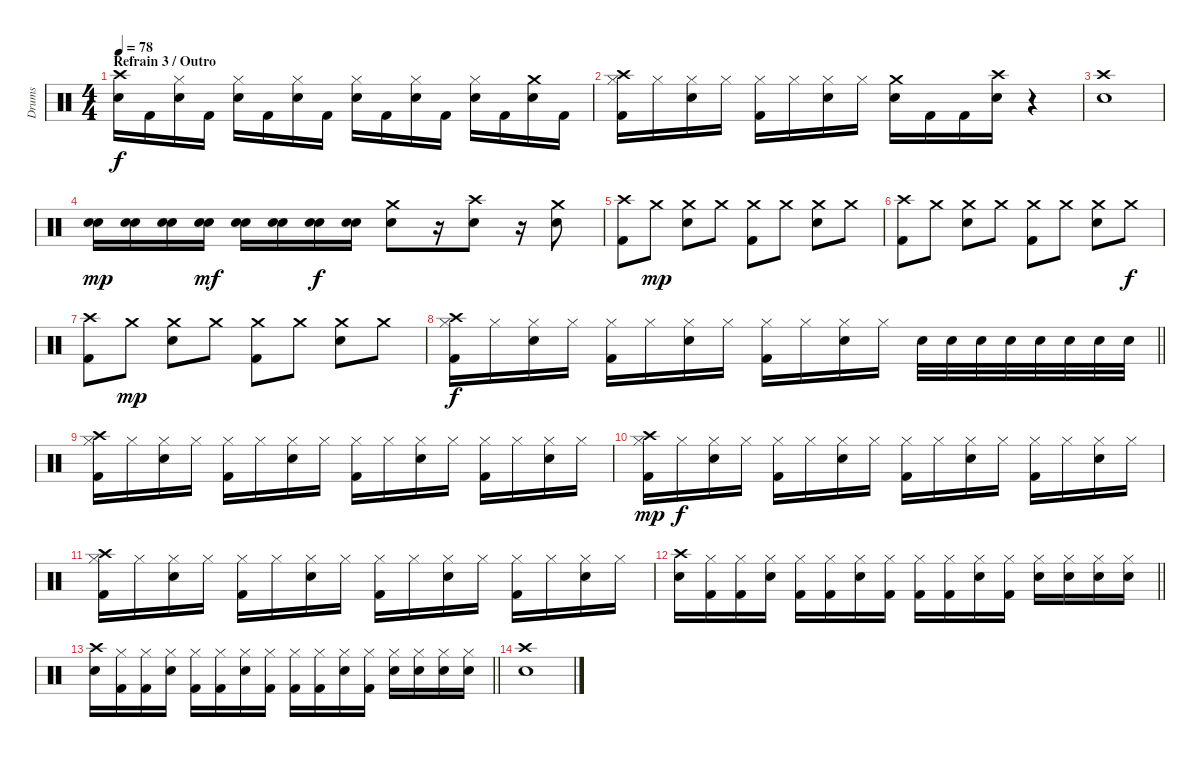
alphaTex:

\track ("Drums" "Drums") {instrument percussion}
\staff {score}
\articulation defaults
\ts (4 4)
\section ("" "Refrain 3 / Outro")
\tempo 78
\clef neutral
\ks c
("Crash high (hit)" "Snare (hit) 2").16{dy f} "Kick (hit) 2".16 ("Hi-Hat (closed)" "Snare (hit) 2").16 "Kick (hit) 2".16 ("Hi-Hat (closed)" "Snare (hit) 2").16 "Kick (hit) 2".16 ("Hi-Hat (closed)" "Snare (hit) 2").16 "Kick (hit) 2".16 ("Hi-Hat (closed)" "Snare (hit) 2").16 "Kick (hit) 2".16 ("Hi-Hat (closed)" "Snare (hit) 2").16 "Kick (hit) 2".16 ("Hi-Hat (closed)" "Snare (hit) 2").16 "Kick (hit) 2".16 ("Crash medium (hit)" "Snare (hit) 2").16 "Kick (hit) 2".16 |
("Crash high (hit)" "Hi-Hat (closed)" "Kick (hit) 2").16 "Hi-Hat (closed)".16 ("Hi-Hat (closed)" "Snare (hit) 2").16 "Hi-Hat (closed)".16 ("Hi-Hat (closed)" "Kick (hit) 2").16 "Hi-Hat (closed)".16 ("Hi-Hat (closed)" "Snare (hit) 2").16 "Hi-Hat (closed)".16 ("Crash medium (hit)" "Snare (hit) 2").16 "Kick (hit) 2".16 "Kick (hit) 2".16 ("Crash high (hit)" "Snare (hit) 2").16 r.4 |
("Crash high (hit)" "Snare (hit) 2").1 |
("Electric Snare (hit)" "Snare (hit) 2").16{dy mp} ("Electric Snare (hit)" "Snare (hit) 2").16 ("Electric Snare (hit)" "Snare (hit) 2").16 ("Electric Snare (hit)" "Snare (hit) 2").16{dy mf} ("Electric Snare (hit)" "Snare (hit) 2").16 ("Electric Snare (hit)" "Snare (hit) 2").16 ("Electric Snare (hit)" "Snare (hit) 2").16{dy f} ("Electric Snare (hit)" "Snare (hit) 2").16 ("Crash medium (hit)" "Snare (hit) 2").8 r.16 ("Crash high (hit)" "Snare (hit) 2").8 r.16 ("Crash medium (hit)" "Snare (hit) 2").8 |
("Crash high (hit)" "Kick (hit) 2").8 "Crash medium (hit)".8{dy mp} ("Crash medium (hit)" "Snare (hit) 2").8 "Crash medium (hit)".8 ("Crash medium (hit)" "Kick (hit) 2").8 "Crash medium (hit)".8 ("Crash medium (hit)" "Snare (hit) 2").8 "Crash medium (hit)".8 |
("Crash high (hit)" "Kick (hit) 2").8 "Crash medium (hit)".8 ("Crash medium (hit)" "Snare (hit) 2").8 "Crash medium (hit)".8 ("Crash medium (hit)" "Kick (hit) 2").8 "Crash medium (hit)".8 ("Crash medium (hit)" "Snare (hit) 2").8 "Crash medium (hit)".8{dy f} |
("Crash high (hit)" "Kick (hit) 2").8 "Crash medium (hit)".8{dy mp} ("Crash medium (hit)" "Snare (hit) 2").8 "Crash medium (hit)".8 ("Crash medium (hit)" "Kick (hit) 2").8 "Crash medium (hit)".8 ("Crash medium (hit)" "Snare (hit) 2").8 "Crash medium (hit)".8 |
\barLineRight lightlight
("Crash high (hit)" "Hi-Hat (closed)" "Kick (hit) 2").16{dy f} "Hi-Hat (closed)".16 ("Hi-Hat (closed)" "Snare (hit) 2").16 "Hi-Hat (closed)".16 ("Hi-Hat (closed)" "Kick (hit) 2").16 "Hi-Hat (closed)".16 ("Hi-Hat (closed)" "Snare (hit) 2").16 "Hi-Hat (closed)".16 ("Hi-Hat (closed)" "Kick (hit) 2").16 "Hi-Hat (closed)".16 ("Hi-Hat (closed)" "Snare (hit) 2").16 "Hi-Hat (closed)".16 "Snare (hit) 2".32 "Snare (hit) 2".32 "Snare (hit) 2".32 "Snare (hit) 2".32 "Snare (hit) 2".32 "Snare (hit) 2".32 "Snare (hit) 2".32 "Snare (hit) 2".32 |
("Crash high (hit)" "Hi-Hat (closed)" "Kick (hit) 2").16 "Hi-Hat (closed)".16 ("Hi-Hat (closed)" "Snare (hit) 2").16 "Hi-Hat (closed)".16 ("Hi-Hat (closed)" "Kick (hit) 2").16 "Hi-Hat (closed)".16 ("Hi-Hat (closed)" "Snare (hit) 2").16 "Hi-Hat (closed)".16 ("Hi-Hat (closed)" "Kick (hit) 2").16 "Hi-Hat (closed)".16 ("Hi-Hat (closed)" "Snare (hit) 2").16 "Hi-Hat (closed)".16 ("Hi-Hat (closed)" "Kick (hit) 2").16 "Hi-Hat (closed)".16 ("Hi-Hat (closed)" "Snare (hit) 2").16 "Hi-Hat (closed)".16 |
("Crash high (hit)" "Hi-Hat (closed)" "Kick (hit) 2").16{dy mp} "Hi-Hat (closed)".16{dy f} ("Hi-Hat (closed)" "Snare (hit) 2").16 "Hi-Hat (closed)".16 ("Hi-Hat (closed)" "Kick (hit) 2").16 "Hi-Hat (closed)".16 ("Hi-Hat (closed)" "Snare (hit) 2").16 "Hi-Hat (closed)".16 ("Hi-Hat (closed)" "Kick (hit) 2").16 "Hi-Hat (closed)".16 ("Hi-Hat (closed)" "Snare (hit) 2").16 "Hi-Hat (closed)".16 ("Hi-Hat (closed)" "Kick (hit) 2").16 "Hi-Hat (closed)".16 ("Hi-Hat (closed)" "Snare (hit) 2").16 "Hi-Hat (closed)".16 |
("Crash high (hit)" "Hi-Hat (closed)" "Kick (hit) 2").16 "Hi-Hat (closed)".16 ("Hi-Hat (closed)" "Snare (hit) 2").16 "Hi-Hat (closed)".16 ("Hi-Hat (closed)" "Kick (hit) 2").16 "Hi-Hat (closed)".16 ("Hi-Hat (closed)" "Snare (hit) 2").16 "Hi-Hat (closed)".16 ("Hi-Hat (closed)" "Kick (hit) 2").16 "Hi-Hat (closed)".16 ("Hi-Hat (closed)" "Snare (hit) 2").16 "Hi-Hat (closed)".16 ("Hi-Hat (closed)" "Kick (hit) 2").16 "Hi-Hat (closed)".16 ("Hi-Hat (closed)" "Snare (hit) 2").16 "Hi-Hat (closed)".16 |
\barLineRight lightlight
("Crash high (hit)" "Snare (hit) 2").16 ("Hi-Hat (closed)" "Kick (hit) 2").16 ("Hi-Hat (closed)" "Kick (hit) 2").16 ("Hi-Hat (closed)" "Snare (hit) 2").16 ("Hi-Hat (closed)" "Kick (hit) 2").16 ("Hi-Hat (closed)" "Kick (hit) 2").16 ("Hi-Hat (closed)" "Snare (hit) 2").16 ("Hi-Hat (closed)" "Kick (hit) 2").16 ("Hi-Hat (closed)" "Kick (hit) 2").16 ("Hi-Hat (closed)" "Kick (hit) 2").16 ("Hi-Hat (closed)" "Snare (hit) 2").16 ("Hi-Hat (closed)" "Kick (hit) 2").16 ("Hi-Hat (closed)" "Snare (hit) 2").16 ("Hi-Hat (closed)" "Snare (hit) 2").16 ("Hi-Hat (closed)" "Snare (hit) 2").16 ("Hi-Hat (closed)" "Snare (hit) 2").16 |
\barLineRight lightlight
("Crash high (hit)" "Snare (hit) 2").16 ("Hi-Hat (closed)" "Kick (hit) 2").16 ("Hi-Hat (closed)" "Kick (hit) 2").16 ("Hi-Hat (closed)" "Snare (hit) 2").16 ("Hi-Hat (closed)" "Kick (hit) 2").16 ("Hi-Hat (closed)" "Kick (hit) 2").16 ("Hi-Hat (closed)" "Snare (hit) 2").16 ("Hi-Hat (closed)" "Kick (hit) 2").16 ("Hi-Hat (closed)" "Kick (hit) 2").16 ("Hi-Hat (closed)" "Kick (hit) 2").16 ("Hi-Hat (closed)" "Snare (hit) 2").16 ("Hi-Hat (closed)" "Kick (hit) 2").16 ("Hi-Hat (closed)" "Snare (hit) 2").16 ("Hi-Hat (closed)" "Snare (hit) 2").16 ("Hi-Hat (closed)" "Snare (hit) 2").16 ("Hi-Hat (closed)" "Snare (hit) 2").16 |
("Crash high (hit)" "Snare (hit) 2").1
